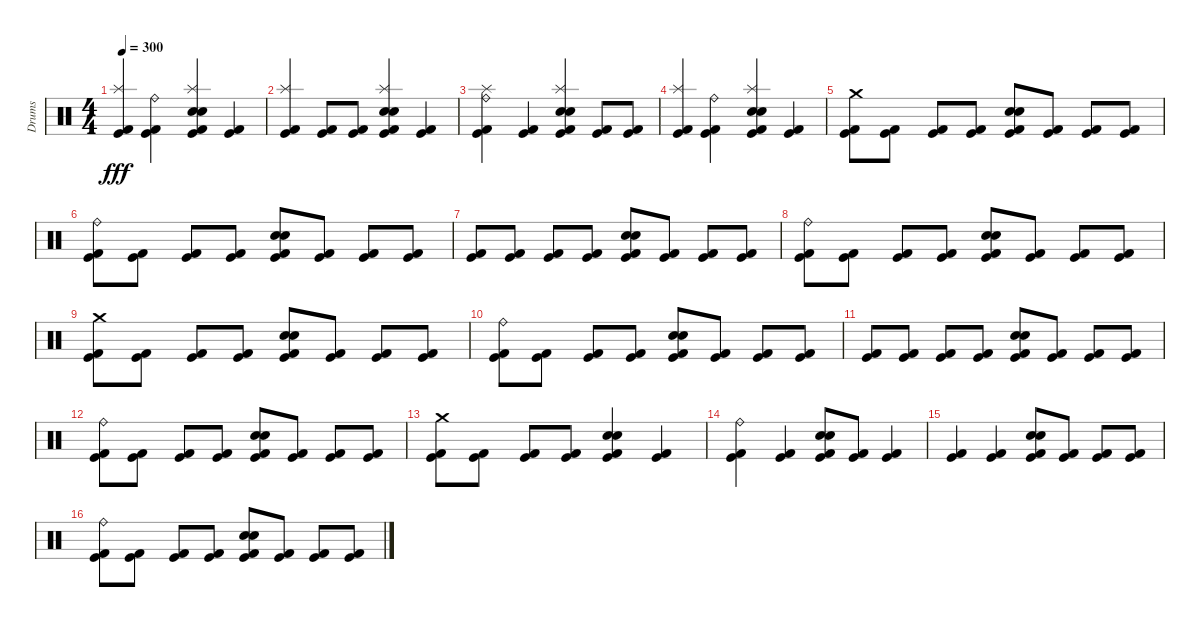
\track ("Drums" "Drums") {instrument percussion}
\staff {score}
\articulation defaults
\ts (4 4)
\tempo 300
\clef neutral
\ks c
("Kick (hit) 2" "Splash (hit)" "Kick (hit)").4{dy fff} ("Kick (hit) 2" "Ride (bell)" "Kick (hit)").4 ("Kick (hit) 2" "Snare (hit) 2" "Electric Snare (hit)" "Splash (hit)" "Kick (hit)").4 ("Kick (hit) 2" "Kick (hit)").4 |
("Kick (hit) 2" "Splash (hit)" "Kick (hit)").4 ("Kick (hit) 2" "Kick (hit)").8 ("Kick (hit) 2" "Kick (hit)").8 ("Kick (hit) 2" "Snare (hit) 2" "Electric Snare (hit)" "Splash (hit)" "Kick (hit)").4 ("Kick (hit) 2" "Kick (hit)").4 |
("Kick (hit) 2" "Ride (bell)" "Splash (hit)" "Kick (hit)").4 ("Kick (hit) 2" "Kick (hit)").4 ("Kick (hit) 2" "Electric Snare (hit)" "Snare (hit) 2" "Splash (hit)" "Kick (hit)").4 ("Kick (hit) 2" "Kick (hit)").8 ("Kick (hit) 2" "Kick (hit)").8 |
("Kick (hit) 2" "Splash (hit)" "Kick (hit)").4 ("Kick (hit) 2" "Ride (bell)" "Kick (hit)").4 ("Kick (hit) 2" "Snare (hit) 2" "Electric Snare (hit)" "Splash (hit)" "Kick (hit)").4 ("Kick (hit) 2" "Kick (hit)").4 |
("Kick (hit) 2" "Crash medium (hit)" "Kick (hit)").8 ("Kick (hit) 2" "Kick (hit)").8 ("Kick (hit) 2" "Kick (hit)").8 ("Kick (hit) 2" "Kick (hit)").8 ("Kick (hit) 2" "Snare (hit) 2" "Electric Snare (hit)" "Kick (hit)").8 ("Kick (hit) 2" "Kick (hit)").8 ("Kick (hit) 2" "Kick (hit)").8 ("Kick (hit) 2" "Kick (hit)").8 |
("Kick (hit) 2" "Ride (bell)" "Kick (hit)").8 ("Kick (hit) 2" "Kick (hit)").8 ("Kick (hit) 2" "Kick (hit)").8 ("Kick (hit) 2" "Kick (hit)").8 ("Kick (hit) 2" "Snare (hit) 2" "Electric Snare (hit)" "Kick (hit)").8 ("Kick (hit) 2" "Kick (hit)").8 ("Kick (hit) 2" "Kick (hit)").8 ("Kick (hit) 2" "Kick (hit)").8 |
("Kick (hit) 2" "Kick (hit)").8 ("Kick (hit) 2" "Kick (hit)").8 ("Kick (hit) 2" "Kick (hit)").8 ("Kick (hit) 2" "Kick (hit)").8 ("Kick (hit) 2" "Snare (hit) 2" "Electric Snare (hit)" "Kick (hit)").8 ("Kick (hit) 2" "Kick (hit)").8 ("Kick (hit) 2" "Kick (hit)").8 ("Kick (hit) 2" "Kick (hit)").8 |
("Kick (hit) 2" "Ride (bell)" "Kick (hit)").8 ("Kick (hit) 2" "Kick (hit)").8 ("Kick (hit) 2" "Kick (hit)").8 ("Kick (hit) 2" "Kick (hit)").8 ("Kick (hit) 2" "Snare (hit) 2" "Electric Snare (hit)" "Kick (hit)").8 ("Kick (hit) 2" "Kick (hit)").8 ("Kick (hit) 2" "Kick (hit)").8 ("Kick (hit) 2" "Kick (hit)").8 |
("Kick (hit) 2" "Crash medium (hit)" "Kick (hit)").8 ("Kick (hit) 2" "Kick (hit)").8 ("Kick (hit) 2" "Kick (hit)").8 ("Kick (hit) 2" "Kick (hit)").8 ("Kick (hit) 2" "Snare (hit) 2" "Electric Snare (hit)" "Kick (hit)").8 ("Kick (hit) 2" "Kick (hit)").8 ("Kick (hit) 2" "Kick (hit)").8 ("Kick (hit) 2" "Kick (hit)").8 |
("Kick (hit) 2" "Ride (bell)" "Kick (hit)").8 ("Kick (hit) 2" "Kick (hit)").8 ("Kick (hit) 2" "Kick (hit)").8 ("Kick (hit) 2" "Kick (hit)").8 ("Kick (hit) 2" "Snare (hit) 2" "Electric Snare (hit)" "Kick (hit)").8 ("Kick (hit) 2" "Kick (hit)").8 ("Kick (hit) 2" "Kick (hit)").8 ("Kick (hit) 2" "Kick (hit)").8 |
("Kick (hit) 2" "Kick (hit)").8 ("Kick (hit) 2" "Kick (hit)").8 ("Kick (hit) 2" "Kick (hit)").8 ("Kick (hit) 2" "Kick (hit)").8 ("Kick (hit) 2" "Snare (hit) 2" "Electric Snare (hit)" "Kick (hit)").8 ("Kick (hit) 2" "Kick (hit)").8 ("Kick (hit) 2" "Kick (hit)").8 ("Kick (hit) 2" "Kick (hit)").8 |
("Kick (hit) 2" "Ride (bell)" "Kick (hit)").8 ("Kick (hit) 2" "Kick (hit)").8 ("Kick (hit) 2" "Kick (hit)").8 ("Kick (hit) 2" "Kick (hit)").8 ("Kick (hit) 2" "Snare (hit) 2" "Electric Snare (hit)" "Kick (hit)").8 ("Kick (hit) 2" "Kick (hit)").8 ("Kick (hit) 2" "Kick (hit)").8 ("Kick (hit) 2" "Kick (hit)").8 |
("Kick (hit) 2" "Crash medium (hit)" "Kick (hit)").8 ("Kick (hit) 2" "Kick (hit)").8 ("Kick (hit) 2" "Kick (hit)").8 ("Kick (hit) 2" "Kick (hit)").8 ("Kick (hit) 2" "Snare (hit) 2" "Electric Snare (hit)" "Kick (hit)").4 ("Kick (hit) 2" "Kick (hit)").4 |
("Kick (hit) 2" "Ride (bell)" "Kick (hit)").4 ("Kick (hit) 2" "Kick (hit)").4 ("Kick (hit) 2" "Snare (hit) 2" "Electric Snare (hit)" "Kick (hit)").8 ("Kick (hit) 2" "Kick (hit)").8 ("Kick (hit) 2" "Kick (hit)").4 |
("Kick (hit) 2" "Kick (hit)").4 ("Kick (hit) 2" "Kick (hit)").4 ("Kick (hit) 2" "Snare (hit) 2" "Electric Snare (hit)" "Kick (hit)").8 ("Kick (hit) 2" "Kick (hit)").8 ("Kick (hit) 2" "Kick (hit)").8 ("Kick (hit) 2" "Kick (hit)").8 |
("Kick (hit) 2" "Ride (bell)" "Kick (hit)").8 ("Kick (hit) 2" "Kick (hit)").8 ("Kick (hit) 2" "Kick (hit)").8 ("Kick (hit) 2" "Kick (hit)").8 ("Kick (hit) 2" "Snare (hit) 2" "Electric Snare (hit)" "Kick (hit)").8 ("Kick (hit) 2" "Kick (hit)").8 ("Kick (hit) 2" "Kick (hit)").8 ("Kick (hit) 2" "Kick (hit)").8
